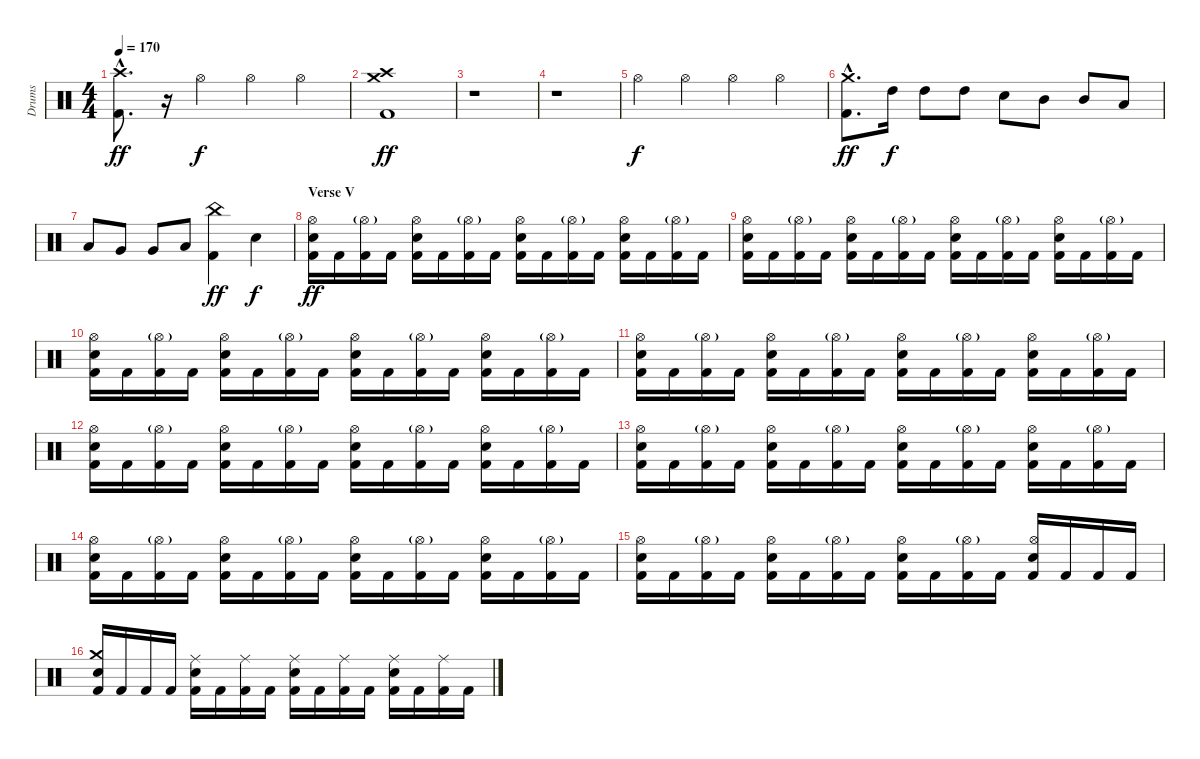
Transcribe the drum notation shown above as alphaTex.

\track ("Drums" "Drums") {instrument percussion}
\staff {score}
\articulation defaults
\ts (4 4)
\tempo 170
\clef neutral
\ks c
("Crash high (hit)"{hac} "Kick (hit) 2"{hac}).8{d dy ff volume 13} r.16{volume 4} "Hi-Hat (open)".4{dy f volume 13} "Hi-Hat (open)".4 "Hi-Hat (open)".4 |
("Crash medium (hit)" "Crash high (hit)" "Kick (hit) 2").1{dy ff} |
r.1 |
r.1 |
"Hi-Hat (open)".4{dy f} "Hi-Hat (open)".4 "Hi-Hat (open)".4 "Hi-Hat (open)".4 |
("Crash medium (hit)"{hac} "Kick (hit) 2"{hac}).8{d dy ff} "High Tom (hit)".16{dy f} "High Tom (hit)".8 "High Tom (hit)".8 "Electric Snare (hit)".8 "Mid Tom (hit)".8 "Mid Tom (hit)".8 "Low Tom (hit)".8 |
"Low Tom (hit)".8 "Very Low Tom (hit)".8 "Very Low Tom (hit)".8 "Low Floor Tom (hit)".8 ("China (hit)" "Kick (hit) 2").4{dy ff} "Electric Snare (hit)".4{dy f} |
\section ("" "Verse V")
("Hi-Hat (open)" "Electric Snare (hit)" "Kick (hit) 2").16{dy ff} "Kick (hit) 2".16 ("Hi-Hat (open)"{g} "Kick (hit) 2").16 "Kick (hit) 2".16 ("Hi-Hat (open)" "Electric Snare (hit)" "Kick (hit) 2").16 "Kick (hit) 2".16 ("Hi-Hat (open)"{g} "Kick (hit) 2").16 "Kick (hit) 2".16 ("Hi-Hat (open)" "Electric Snare (hit)" "Kick (hit) 2").16 "Kick (hit) 2".16 ("Hi-Hat (open)"{g} "Kick (hit) 2").16 "Kick (hit) 2".16 ("Hi-Hat (open)" "Electric Snare (hit)" "Kick (hit) 2").16 "Kick (hit) 2".16 ("Hi-Hat (open)"{g} "Kick (hit) 2").16 "Kick (hit) 2".16 |
("Hi-Hat (open)" "Electric Snare (hit)" "Kick (hit) 2").16 "Kick (hit) 2".16 ("Hi-Hat (open)"{g} "Kick (hit) 2").16 "Kick (hit) 2".16 ("Hi-Hat (open)" "Electric Snare (hit)" "Kick (hit) 2").16 "Kick (hit) 2".16 ("Hi-Hat (open)"{g} "Kick (hit) 2").16 "Kick (hit) 2".16 ("Hi-Hat (open)" "Electric Snare (hit)" "Kick (hit) 2").16 "Kick (hit) 2".16 ("Hi-Hat (open)"{g} "Kick (hit) 2").16 "Kick (hit) 2".16 ("Hi-Hat (open)" "Electric Snare (hit)" "Kick (hit) 2").16 "Kick (hit) 2".16 ("Hi-Hat (open)"{g} "Kick (hit) 2").16 "Kick (hit) 2".16 |
("Hi-Hat (open)" "Electric Snare (hit)" "Kick (hit) 2").16 "Kick (hit) 2".16 ("Hi-Hat (open)"{g} "Kick (hit) 2").16 "Kick (hit) 2".16 ("Hi-Hat (open)" "Electric Snare (hit)" "Kick (hit) 2").16 "Kick (hit) 2".16 ("Hi-Hat (open)"{g} "Kick (hit) 2").16 "Kick (hit) 2".16 ("Hi-Hat (open)" "Electric Snare (hit)" "Kick (hit) 2").16 "Kick (hit) 2".16 ("Hi-Hat (open)"{g} "Kick (hit) 2").16 "Kick (hit) 2".16 ("Hi-Hat (open)" "Electric Snare (hit)" "Kick (hit) 2").16 "Kick (hit) 2".16 ("Hi-Hat (open)"{g} "Kick (hit) 2").16 "Kick (hit) 2".16 |
("Hi-Hat (open)" "Electric Snare (hit)" "Kick (hit) 2").16 "Kick (hit) 2".16 ("Hi-Hat (open)"{g} "Kick (hit) 2").16 "Kick (hit) 2".16 ("Hi-Hat (open)" "Electric Snare (hit)" "Kick (hit) 2").16 "Kick (hit) 2".16 ("Hi-Hat (open)"{g} "Kick (hit) 2").16 "Kick (hit) 2".16 ("Hi-Hat (open)" "Electric Snare (hit)" "Kick (hit) 2").16 "Kick (hit) 2".16 ("Hi-Hat (open)"{g} "Kick (hit) 2").16 "Kick (hit) 2".16 ("Hi-Hat (open)" "Electric Snare (hit)" "Kick (hit) 2").16 "Kick (hit) 2".16 ("Hi-Hat (open)"{g} "Kick (hit) 2").16 "Kick (hit) 2".16 |
("Hi-Hat (open)" "Electric Snare (hit)" "Kick (hit) 2").16 "Kick (hit) 2".16 ("Hi-Hat (open)"{g} "Kick (hit) 2").16 "Kick (hit) 2".16 ("Hi-Hat (open)" "Electric Snare (hit)" "Kick (hit) 2").16 "Kick (hit) 2".16 ("Hi-Hat (open)"{g} "Kick (hit) 2").16 "Kick (hit) 2".16 ("Hi-Hat (open)" "Electric Snare (hit)" "Kick (hit) 2").16 "Kick (hit) 2".16 ("Hi-Hat (open)"{g} "Kick (hit) 2").16 "Kick (hit) 2".16 ("Hi-Hat (open)" "Electric Snare (hit)" "Kick (hit) 2").16 "Kick (hit) 2".16 ("Hi-Hat (open)"{g} "Kick (hit) 2").16 "Kick (hit) 2".16 |
("Hi-Hat (open)" "Electric Snare (hit)" "Kick (hit) 2").16 "Kick (hit) 2".16 ("Hi-Hat (open)"{g} "Kick (hit) 2").16 "Kick (hit) 2".16 ("Hi-Hat (open)" "Electric Snare (hit)" "Kick (hit) 2").16 "Kick (hit) 2".16 ("Hi-Hat (open)"{g} "Kick (hit) 2").16 "Kick (hit) 2".16 ("Hi-Hat (open)" "Electric Snare (hit)" "Kick (hit) 2").16 "Kick (hit) 2".16 ("Hi-Hat (open)"{g} "Kick (hit) 2").16 "Kick (hit) 2".16 ("Hi-Hat (open)" "Electric Snare (hit)" "Kick (hit) 2").16 "Kick (hit) 2".16 ("Hi-Hat (open)"{g} "Kick (hit) 2").16 "Kick (hit) 2".16 |
("Hi-Hat (open)" "Electric Snare (hit)" "Kick (hit) 2").16 "Kick (hit) 2".16 ("Hi-Hat (open)"{g} "Kick (hit) 2").16 "Kick (hit) 2".16 ("Hi-Hat (open)" "Electric Snare (hit)" "Kick (hit) 2").16 "Kick (hit) 2".16 ("Hi-Hat (open)"{g} "Kick (hit) 2").16 "Kick (hit) 2".16 ("Hi-Hat (open)" "Electric Snare (hit)" "Kick (hit) 2").16 "Kick (hit) 2".16 ("Hi-Hat (open)"{g} "Kick (hit) 2").16 "Kick (hit) 2".16 ("Hi-Hat (open)" "Electric Snare (hit)" "Kick (hit) 2").16 "Kick (hit) 2".16 ("Hi-Hat (open)"{g} "Kick (hit) 2").16 "Kick (hit) 2".16 |
("Hi-Hat (open)" "Electric Snare (hit)" "Kick (hit) 2").16 "Kick (hit) 2".16 ("Hi-Hat (open)"{g} "Kick (hit) 2").16 "Kick (hit) 2".16 ("Hi-Hat (open)" "Electric Snare (hit)" "Kick (hit) 2").16 "Kick (hit) 2".16 ("Hi-Hat (open)"{g} "Kick (hit) 2").16 "Kick (hit) 2".16 ("Hi-Hat (open)" "Electric Snare (hit)" "Kick (hit) 2").16 "Kick (hit) 2".16 ("Hi-Hat (open)"{g} "Kick (hit) 2").16 "Kick (hit) 2".16 ("Hi-Hat (open)" "Electric Snare (hit)" "Kick (hit) 2").16 "Kick (hit) 2".16 "Kick (hit) 2".16 "Kick (hit) 2".16 |
("Crash medium (hit)" "Electric Snare (hit)" "Kick (hit) 2").16 "Kick (hit) 2".16 "Kick (hit) 2".16 "Kick (hit) 2".16 ("Ride (middle)" "Electric Snare (hit)" "Kick (hit) 2").16 "Kick (hit) 2".16 ("Ride (middle)" "Kick (hit) 2").16 "Kick (hit) 2".16 ("Ride (middle)" "Electric Snare (hit)" "Kick (hit) 2").16 "Kick (hit) 2".16 ("Ride (middle)" "Kick (hit) 2").16 "Kick (hit) 2".16 ("Ride (middle)" "Electric Snare (hit)" "Kick (hit) 2").16 "Kick (hit) 2".16 ("Ride (middle)" "Kick (hit) 2").16 "Kick (hit) 2".16
